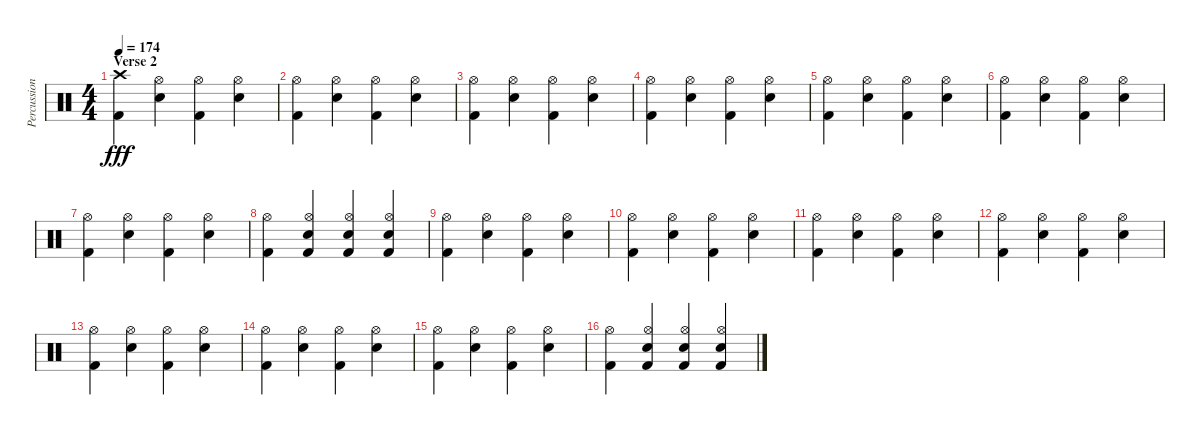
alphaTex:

\track ("Percussion" "Percussion") {instrument percussion}
\staff {score}
\articulation defaults
\ts (4 4)
\section ("" "Verse 2")
\tempo 174
\clef neutral
\ks c
("Crash high (hit)" "Kick (hit) 2").4{dy fff} ("Hi-Hat (open)" "Electric Snare (hit)").4 ("Hi-Hat (open)" "Kick (hit) 2").4 ("Hi-Hat (open)" "Electric Snare (hit)").4 |
("Hi-Hat (open)" "Kick (hit) 2").4 ("Hi-Hat (open)" "Electric Snare (hit)").4 ("Hi-Hat (open)" "Kick (hit) 2").4 ("Hi-Hat (open)" "Electric Snare (hit)").4 |
("Hi-Hat (open)" "Kick (hit) 2").4 ("Hi-Hat (open)" "Electric Snare (hit)").4 ("Hi-Hat (open)" "Kick (hit) 2").4 ("Hi-Hat (open)" "Electric Snare (hit)").4 |
("Hi-Hat (open)" "Kick (hit) 2").4 ("Hi-Hat (open)" "Electric Snare (hit)").4 ("Hi-Hat (open)" "Kick (hit) 2").4 ("Hi-Hat (open)" "Electric Snare (hit)").4 |
("Hi-Hat (open)" "Kick (hit) 2").4 ("Hi-Hat (open)" "Electric Snare (hit)").4 ("Hi-Hat (open)" "Kick (hit) 2").4 ("Hi-Hat (open)" "Electric Snare (hit)").4 |
("Hi-Hat (open)" "Kick (hit) 2").4 ("Hi-Hat (open)" "Electric Snare (hit)").4 ("Hi-Hat (open)" "Kick (hit) 2").4 ("Hi-Hat (open)" "Electric Snare (hit)").4 |
("Hi-Hat (open)" "Kick (hit) 2").4 ("Hi-Hat (open)" "Electric Snare (hit)").4 ("Hi-Hat (open)" "Kick (hit) 2").4 ("Hi-Hat (open)" "Electric Snare (hit)").4 |
("Hi-Hat (open)" "Kick (hit) 2").4 ("Hi-Hat (open)" "Electric Snare (hit)" "Kick (hit) 2").4 ("Hi-Hat (open)" "Electric Snare (hit)" "Kick (hit) 2").4 ("Hi-Hat (open)" "Electric Snare (hit)" "Kick (hit) 2").4 |
("Hi-Hat (open)" "Kick (hit) 2").4 ("Hi-Hat (open)" "Electric Snare (hit)").4 ("Hi-Hat (open)" "Kick (hit) 2").4 ("Hi-Hat (open)" "Electric Snare (hit)").4 |
("Hi-Hat (open)" "Kick (hit) 2").4 ("Hi-Hat (open)" "Electric Snare (hit)").4 ("Hi-Hat (open)" "Kick (hit) 2").4 ("Hi-Hat (open)" "Electric Snare (hit)").4 |
("Hi-Hat (open)" "Kick (hit) 2").4 ("Hi-Hat (open)" "Electric Snare (hit)").4 ("Hi-Hat (open)" "Kick (hit) 2").4 ("Hi-Hat (open)" "Electric Snare (hit)").4 |
("Hi-Hat (open)" "Kick (hit) 2").4 ("Hi-Hat (open)" "Electric Snare (hit)").4 ("Hi-Hat (open)" "Kick (hit) 2").4 ("Hi-Hat (open)" "Electric Snare (hit)").4 |
("Hi-Hat (open)" "Kick (hit) 2").4 ("Hi-Hat (open)" "Electric Snare (hit)").4 ("Hi-Hat (open)" "Kick (hit) 2").4 ("Hi-Hat (open)" "Electric Snare (hit)").4 |
("Hi-Hat (open)" "Kick (hit) 2").4 ("Hi-Hat (open)" "Electric Snare (hit)").4 ("Hi-Hat (open)" "Kick (hit) 2").4 ("Hi-Hat (open)" "Electric Snare (hit)").4 |
("Hi-Hat (open)" "Kick (hit) 2").4 ("Hi-Hat (open)" "Electric Snare (hit)").4 ("Hi-Hat (open)" "Kick (hit) 2").4 ("Hi-Hat (open)" "Electric Snare (hit)").4 |
("Hi-Hat (open)" "Kick (hit) 2").4 ("Hi-Hat (open)" "Electric Snare (hit)" "Kick (hit) 2").4 ("Hi-Hat (open)" "Electric Snare (hit)" "Kick (hit) 2").4 ("Hi-Hat (open)" "Electric Snare (hit)" "Kick (hit) 2").4
